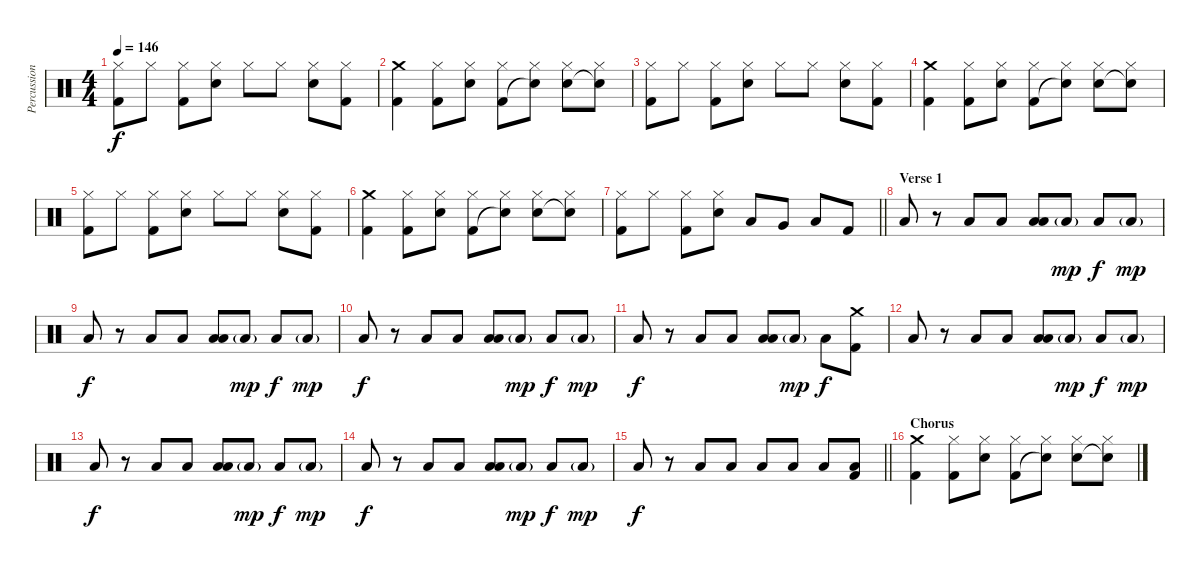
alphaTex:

\track ("Percussion" "Percussion") {instrument percussion}
\staff {score}
\articulation defaults
\ts (4 4)
\tempo 146
\clef neutral
\ks c
("Hi-Hat (closed)" "Kick (hit) 2").8{dy f} "Hi-Hat (closed)".8 ("Hi-Hat (closed)" "Kick (hit) 2").8 ("Hi-Hat (closed)" "Snare (hit) 2").8 "Hi-Hat (closed)".8 "Hi-Hat (closed)".8 ("Hi-Hat (closed)" "Snare (hit) 2").8 ("Hi-Hat (closed)" "Kick (hit) 2").8 |
("Crash medium (hit)" "Kick (hit) 2").4 ("Hi-Hat (closed)" "Kick (hit) 2").8 ("Hi-Hat (closed)" "Snare (hit) 2").8 ("Hi-Hat (closed)" "Kick (hit) 2").8 ("Hi-Hat (closed)" "Snare (hit)"{t}).8 ("Hi-Hat (closed)" "Snare (hit) 2").8 ("Hi-Hat (closed)" "Snare (hit)"{t}).8 |
("Hi-Hat (closed)" "Kick (hit) 2").8 "Hi-Hat (closed)".8 ("Hi-Hat (closed)" "Kick (hit) 2").8 ("Hi-Hat (closed)" "Snare (hit) 2").8 "Hi-Hat (closed)".8 "Hi-Hat (closed)".8 ("Hi-Hat (closed)" "Snare (hit) 2").8 ("Hi-Hat (closed)" "Kick (hit) 2").8 |
("Crash medium (hit)" "Kick (hit) 2").4 ("Hi-Hat (closed)" "Kick (hit) 2").8 ("Hi-Hat (closed)" "Snare (hit) 2").8 ("Hi-Hat (closed)" "Kick (hit) 2").8 ("Hi-Hat (closed)" "Snare (hit)"{t}).8 ("Hi-Hat (closed)" "Snare (hit) 2").8 ("Hi-Hat (closed)" "Snare (hit)"{t}).8 |
("Hi-Hat (closed)" "Kick (hit) 2").8 "Hi-Hat (closed)".8 ("Hi-Hat (closed)" "Kick (hit) 2").8 ("Hi-Hat (closed)" "Snare (hit) 2").8 "Hi-Hat (closed)".8 "Hi-Hat (closed)".8 ("Hi-Hat (closed)" "Snare (hit) 2").8 ("Hi-Hat (closed)" "Kick (hit) 2").8 |
("Crash medium (hit)" "Kick (hit) 2").4 ("Hi-Hat (closed)" "Kick (hit) 2").8 ("Hi-Hat (closed)" "Snare (hit) 2").8 ("Hi-Hat (closed)" "Kick (hit) 2").8 ("Hi-Hat (closed)" "Snare (hit)"{t}).8 ("Hi-Hat (closed)" "Snare (hit) 2").8 ("Hi-Hat (closed)" "Snare (hit)"{t}).8 |
\barLineRight lightlight
("Hi-Hat (closed)" "Kick (hit) 2").8 "Hi-Hat (closed)".8 ("Hi-Hat (closed)" "Kick (hit) 2").8 ("Hi-Hat (closed)" "Snare (hit) 2").8 "Low Tom (hit)".8 "Very Low Tom (hit)".8 "Low Floor Tom (hit)".8 "Kick (hit) 2".8 |
\section ("" "Verse 1")
"Low Tom (hit)".8 r.8 "Low Tom (hit)".8 "Low Tom (hit)".8 ("Low Tom (hit)" "Low Floor Tom (hit)").8 "Low Floor Tom (hit)"{g}.8{dy mp} "Low Floor Tom (hit)".8{dy f} "Low Tom (hit)"{g}.8{dy mp} |
"Low Tom (hit)".8{dy f} r.8 "Low Tom (hit)".8 "Low Tom (hit)".8 ("Low Tom (hit)" "Low Floor Tom (hit)").8 "Low Floor Tom (hit)"{g}.8{dy mp} "Low Floor Tom (hit)".8{dy f} "Low Tom (hit)"{g}.8{dy mp} |
"Low Tom (hit)".8{dy f} r.8 "Low Tom (hit)".8 "Low Tom (hit)".8 ("Low Tom (hit)" "Low Floor Tom (hit)").8 "Low Floor Tom (hit)"{g}.8{dy mp} "Low Floor Tom (hit)".8{dy f} "Low Tom (hit)"{g}.8{dy mp} |
"Low Tom (hit)".8{dy f} r.8 "Low Tom (hit)".8 "Low Tom (hit)".8 ("Low Tom (hit)" "Low Floor Tom (hit)").8 "Low Floor Tom (hit)"{g}.8{dy mp} "Low Floor Tom (hit)".8{dy f} ("Crash medium (hit)" "Kick (hit) 2").8 |
"Low Tom (hit)".8 r.8 "Low Tom (hit)".8 "Low Tom (hit)".8 ("Low Tom (hit)" "Low Floor Tom (hit)").8 "Low Floor Tom (hit)"{g}.8{dy mp} "Low Floor Tom (hit)".8{dy f} "Low Tom (hit)"{g}.8{dy mp} |
"Low Tom (hit)".8{dy f} r.8 "Low Tom (hit)".8 "Low Tom (hit)".8 ("Low Tom (hit)" "Low Floor Tom (hit)").8 "Low Floor Tom (hit)"{g}.8{dy mp} "Low Floor Tom (hit)".8{dy f} "Low Tom (hit)"{g}.8{dy mp} |
"Low Tom (hit)".8{dy f} r.8 "Low Tom (hit)".8 "Low Tom (hit)".8 ("Low Tom (hit)" "Low Floor Tom (hit)").8 "Low Floor Tom (hit)"{g}.8{dy mp} "Low Floor Tom (hit)".8{dy f} "Low Tom (hit)"{g}.8{dy mp} |
\barLineRight lightlight "Low Tom (hit)".8{dy f}
r.8 "Low Tom (hit)".8 "Low Tom (hit)".8 "Low Tom (hit)".8 "Low Tom (hit)".8 "Low Tom (hit)".8 ("Low Tom (hit)" "Kick (hit) 2").8 |
\section ("" "Chorus")
("Crash medium (hit)" "Kick (hit) 2").4 ("Hi-Hat (closed)" "Kick (hit) 2").8 ("Hi-Hat (closed)" "Snare (hit) 2").8 ("Hi-Hat (closed)" "Kick (hit) 2").8 ("Hi-Hat (closed)" "Snare (hit)"{t}).8 ("Hi-Hat (closed)" "Snare (hit) 2").8 ("Hi-Hat (closed)" "Snare (hit)"{t}).8
